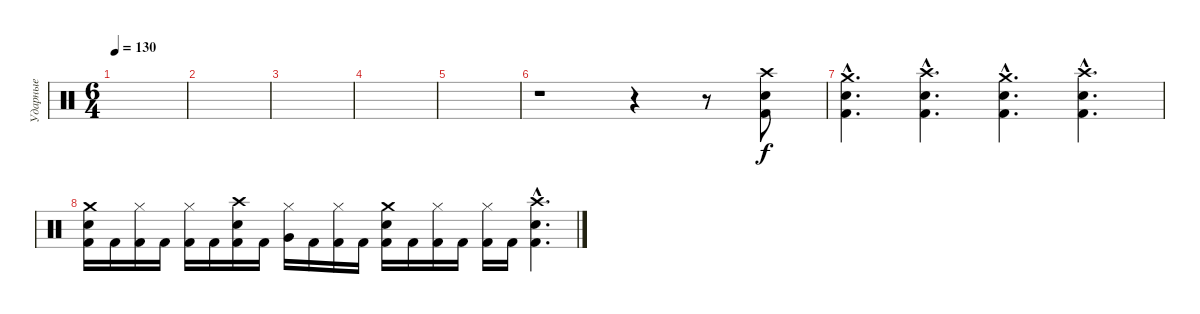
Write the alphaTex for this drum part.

\track ("Ударные" "Ударные") {instrument percussion}
\staff {score}
\articulation defaults
\ts (6 4)
\tempo 130
\clef neutral
\ks c
|
|
|
|
|
r.1 r.4 r.8 ("Electric Snare (hit)" "Kick (hit) 2" "Crash high (hit)").8 |
("Electric Snare (hit)"{hac} "Crash medium (hit)"{hac} "Kick (hit) 2"{hac}).4{d} ("Crash high (hit)"{hac} "Electric Snare (hit)"{hac} "Kick (hit) 2"{hac}).4{d} ("Crash medium (hit)"{hac} "Electric Snare (hit)"{hac} "Kick (hit) 2"{hac}).4{d} ("Crash high (hit)"{hac} "Electric Snare (hit)"{hac} "Kick (hit) 2"{hac}).4{d} |
("Electric Snare (hit)" "Crash medium (hit)" "Kick (hit) 2").16 "Kick (hit) 2".16 ("Kick (hit) 2" "Hi-Hat (closed)").16 "Kick (hit) 2".16 ("Kick (hit) 2" "Hi-Hat (closed)").16 "Kick (hit) 2".16 ("Crash high (hit)" "Electric Snare (hit)" "Kick (hit) 2").16 "Kick (hit) 2".16 ("Very Low Tom (hit)" "Hi-Hat (closed)").16 "Kick (hit) 2".16 ("Kick (hit) 2" "Hi-Hat (closed)").16 "Kick (hit) 2".16 ("Crash medium (hit)" "Electric Snare (hit)" "Kick (hit) 2").16 "Kick (hit) 2".16 ("Kick (hit) 2" "Hi-Hat (closed)").16 "Kick (hit) 2".16 ("Kick (hit) 2" "Hi-Hat (closed)").16 "Kick (hit) 2".16 ("Crash high (hit)"{hac} "Electric Snare (hit)"{hac} "Kick (hit) 2"{hac}).4{d}
